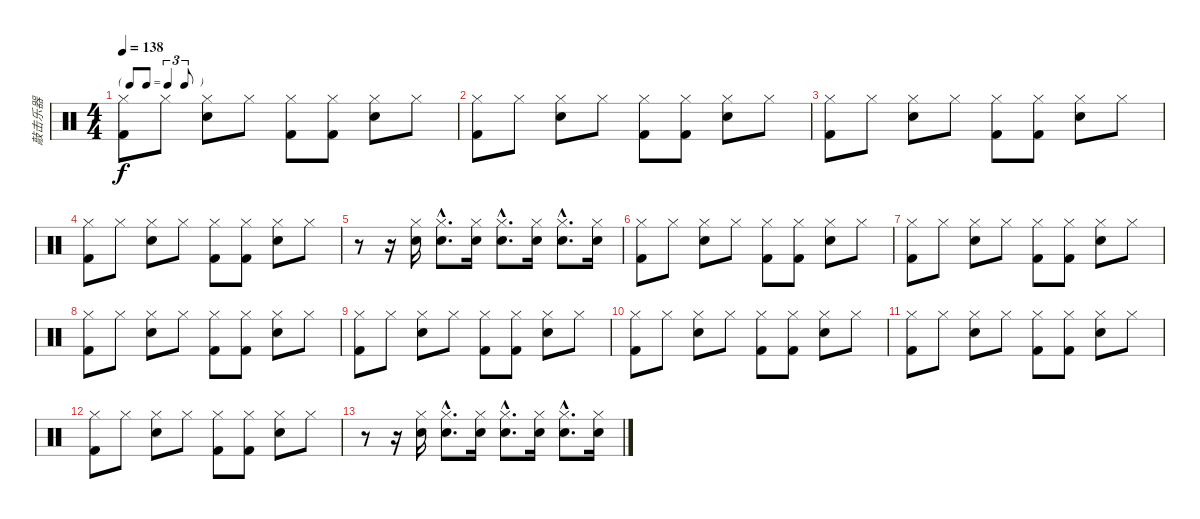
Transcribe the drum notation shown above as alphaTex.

\track ("敲击乐器" "敲击乐器") {instrument percussion}
\staff {score}
\articulation defaults
\ts (4 4)
\tf triplet8th
\tempo 138
\clef neutral
\ks c
("Hi-Hat (closed)" "Kick (hit) 2").8{dy f} "Hi-Hat (closed)".8 ("Hi-Hat (closed)" "Electric Snare (hit)").8 "Hi-Hat (closed)".8 ("Hi-Hat (closed)" "Kick (hit) 2").8 ("Hi-Hat (closed)" "Kick (hit) 2").8 ("Hi-Hat (closed)" "Electric Snare (hit)").8 "Hi-Hat (closed)".8 |
("Hi-Hat (closed)" "Kick (hit) 2").8 "Hi-Hat (closed)".8 ("Hi-Hat (closed)" "Electric Snare (hit)").8 "Hi-Hat (closed)".8 ("Hi-Hat (closed)" "Kick (hit) 2").8 ("Hi-Hat (closed)" "Kick (hit) 2").8 ("Hi-Hat (closed)" "Electric Snare (hit)").8 "Hi-Hat (closed)".8 |
("Hi-Hat (closed)" "Kick (hit) 2").8 "Hi-Hat (closed)".8 ("Hi-Hat (closed)" "Electric Snare (hit)").8 "Hi-Hat (closed)".8 ("Hi-Hat (closed)" "Kick (hit) 2").8 ("Hi-Hat (closed)" "Kick (hit) 2").8 ("Hi-Hat (closed)" "Electric Snare (hit)").8 "Hi-Hat (closed)".8 |
("Hi-Hat (closed)" "Kick (hit) 2").8 "Hi-Hat (closed)".8 ("Hi-Hat (closed)" "Electric Snare (hit)").8 "Hi-Hat (closed)".8 ("Hi-Hat (closed)" "Kick (hit) 2").8 ("Hi-Hat (closed)" "Kick (hit) 2").8 ("Hi-Hat (closed)" "Electric Snare (hit)").8 "Hi-Hat (closed)".8 |
r.8 r.16 ("Hi-Hat (closed)" "Electric Snare (hit)").16 ("Hi-Hat (closed)"{hac} "Electric Snare (hit)"{hac}).8{d} ("Hi-Hat (closed)" "Electric Snare (hit)").16 ("Hi-Hat (closed)"{hac} "Electric Snare (hit)"{hac}).8{d} ("Hi-Hat (closed)" "Electric Snare (hit)").16 ("Hi-Hat (closed)"{hac} "Electric Snare (hit)"{hac}).8{d} ("Hi-Hat (closed)" "Electric Snare (hit)").16 |
("Hi-Hat (closed)" "Kick (hit) 2").8 "Hi-Hat (closed)".8 ("Hi-Hat (closed)" "Electric Snare (hit)").8 "Hi-Hat (closed)".8 ("Hi-Hat (closed)" "Kick (hit) 2").8 ("Hi-Hat (closed)" "Kick (hit) 2").8 ("Hi-Hat (closed)" "Electric Snare (hit)").8 "Hi-Hat (closed)".8 |
("Hi-Hat (closed)" "Kick (hit) 2").8 "Hi-Hat (closed)".8 ("Hi-Hat (closed)" "Electric Snare (hit)").8 "Hi-Hat (closed)".8 ("Hi-Hat (closed)" "Kick (hit) 2").8 ("Hi-Hat (closed)" "Kick (hit) 2").8 ("Hi-Hat (closed)" "Electric Snare (hit)").8 "Hi-Hat (closed)".8 |
("Hi-Hat (closed)" "Kick (hit) 2").8 "Hi-Hat (closed)".8 ("Hi-Hat (closed)" "Electric Snare (hit)").8 "Hi-Hat (closed)".8 ("Hi-Hat (closed)" "Kick (hit) 2").8 ("Hi-Hat (closed)" "Kick (hit) 2").8 ("Hi-Hat (closed)" "Electric Snare (hit)").8 "Hi-Hat (closed)".8 |
("Hi-Hat (closed)" "Kick (hit) 2").8 "Hi-Hat (closed)".8 ("Hi-Hat (closed)" "Electric Snare (hit)").8 "Hi-Hat (closed)".8 ("Hi-Hat (closed)" "Kick (hit) 2").8 ("Hi-Hat (closed)" "Kick (hit) 2").8 ("Hi-Hat (closed)" "Electric Snare (hit)").8 "Hi-Hat (closed)".8 |
("Hi-Hat (closed)" "Kick (hit) 2").8 "Hi-Hat (closed)".8 ("Hi-Hat (closed)" "Electric Snare (hit)").8 "Hi-Hat (closed)".8 ("Hi-Hat (closed)" "Kick (hit) 2").8 ("Hi-Hat (closed)" "Kick (hit) 2").8 ("Hi-Hat (closed)" "Electric Snare (hit)").8 "Hi-Hat (closed)".8 |
("Hi-Hat (closed)" "Kick (hit) 2").8 "Hi-Hat (closed)".8 ("Hi-Hat (closed)" "Electric Snare (hit)").8 "Hi-Hat (closed)".8 ("Hi-Hat (closed)" "Kick (hit) 2").8 ("Hi-Hat (closed)" "Kick (hit) 2").8 ("Hi-Hat (closed)" "Electric Snare (hit)").8 "Hi-Hat (closed)".8 |
("Hi-Hat (closed)" "Kick (hit) 2").8 "Hi-Hat (closed)".8 ("Hi-Hat (closed)" "Electric Snare (hit)").8 "Hi-Hat (closed)".8 ("Hi-Hat (closed)" "Kick (hit) 2").8 ("Hi-Hat (closed)" "Kick (hit) 2").8 ("Hi-Hat (closed)" "Electric Snare (hit)").8 "Hi-Hat (closed)".8 |
r.8 r.16 ("Hi-Hat (closed)" "Electric Snare (hit)").16 ("Hi-Hat (closed)"{hac} "Electric Snare (hit)"{hac}).8{d} ("Hi-Hat (closed)" "Electric Snare (hit)").16 ("Hi-Hat (closed)"{hac} "Electric Snare (hit)"{hac}).8{d} ("Hi-Hat (closed)" "Electric Snare (hit)").16 ("Hi-Hat (closed)"{hac} "Electric Snare (hit)"{hac}).8{d} ("Hi-Hat (closed)" "Electric Snare (hit)").16
